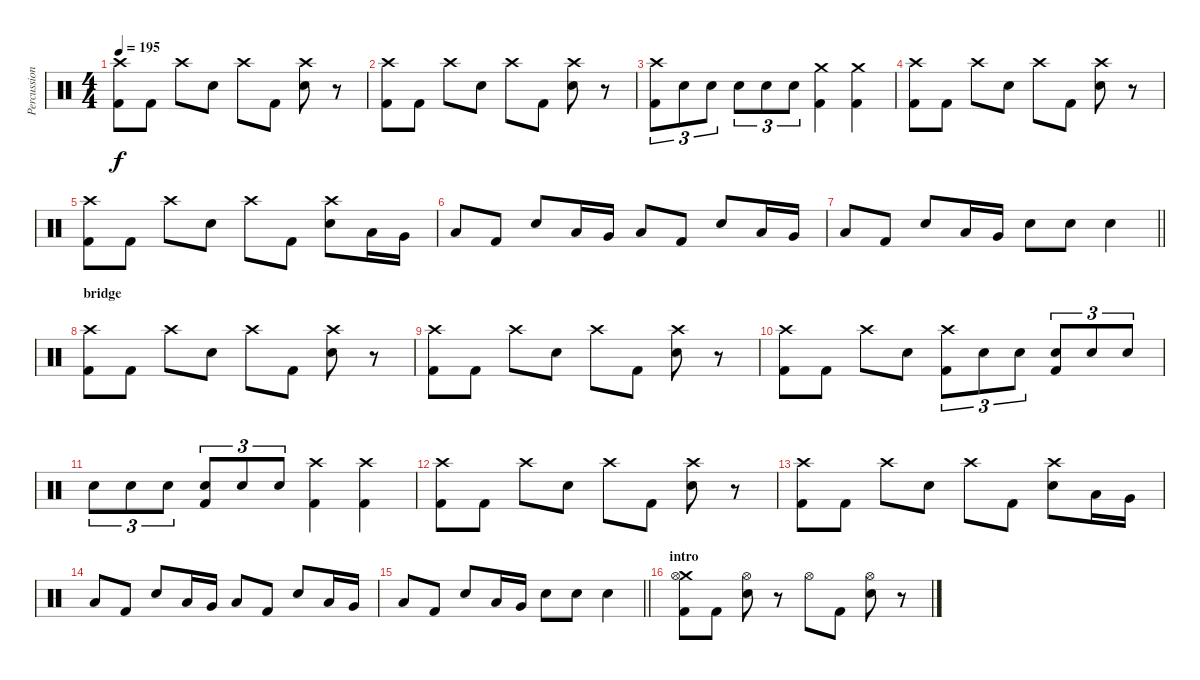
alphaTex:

\track ("Percussion" "Percussion") {instrument percussion}
\staff {score}
\articulation defaults
\ts (4 4)
\tempo 195
\clef neutral
\ks c
("Crash high (hit)" "Kick (hit) 2").8{dy f} "Kick (hit) 2".8 "Crash high (hit)".8 "Snare (hit) 2".8 "Crash high (hit)".8 "Kick (hit) 2".8 ("Crash high (hit)" "Snare (hit) 2").8 r.8 |
("Crash high (hit)" "Kick (hit) 2").8 "Kick (hit) 2".8 "Crash high (hit)".8 "Snare (hit) 2".8 "Crash high (hit)".8 "Kick (hit) 2".8 ("Crash high (hit)" "Snare (hit) 2").8 r.8 |
("Crash high (hit)" "Kick (hit) 2").8{tu (3 2)} "Snare (hit) 2".8{tu (3 2)} "Snare (hit) 2".8{tu (3 2)} "Snare (hit) 2".8{tu (3 2)} "Snare (hit) 2".8{tu (3 2)} "Snare (hit) 2".8{tu (3 2)} ("Crash medium (hit)" "Kick (hit) 2").4 ("Crash medium (hit)" "Kick (hit) 2").4 |
("Crash high (hit)" "Kick (hit) 2").8 "Kick (hit) 2".8 "Crash high (hit)".8 "Snare (hit) 2".8 "Crash high (hit)".8 "Kick (hit) 2".8 ("Crash high (hit)" "Snare (hit) 2").8 r.8 |
("Crash high (hit)" "Kick (hit) 2").8 "Kick (hit) 2".8 "Crash high (hit)".8 "Snare (hit) 2".8 "Crash high (hit)".8 "Kick (hit) 2".8 ("Crash high (hit)" "Snare (hit) 2").8 "Low Tom (hit)".16 "Very Low Tom (hit)".16 |
"Low Floor Tom (hit)".8 "Kick (hit) 2".8 "Snare (hit) 2".8 "Low Tom (hit)".16 "Very Low Tom (hit)".16 "Low Floor Tom (hit)".8 "Kick (hit) 2".8 "Snare (hit) 2".8 "Low Tom (hit)".16 "Very Low Tom (hit)".16 |
\barLineRight lightlight "Low Floor Tom (hit)".8 "Kick (hit) 2".8 "Snare (hit) 2".8 "Low Tom (hit)".16 "Very Low Tom (hit)".16 "Snare (hit) 2".8 "Snare (hit) 2".8 "Snare (hit) 2".4
|
\section ("" "bridge")
("Crash high (hit)" "Kick (hit) 2").8 "Kick (hit) 2".8 "Crash high (hit)".8 "Snare (hit) 2".8 "Crash high (hit)".8 "Kick (hit) 2".8 ("Crash high (hit)" "Snare (hit) 2").8 r.8 |
("Crash high (hit)" "Kick (hit) 2").8 "Kick (hit) 2".8 "Crash high (hit)".8 "Snare (hit) 2".8 "Crash high (hit)".8 "Kick (hit) 2".8 ("Crash high (hit)" "Snare (hit) 2").8 r.8 |
("Crash high (hit)" "Kick (hit) 2").8 "Kick (hit) 2".8 "Crash high (hit)".8 "Snare (hit) 2".8 ("Crash high (hit)" "Kick (hit) 2").8{tu (3 2)} "Snare (hit) 2".8{tu (3 2)} "Snare (hit) 2".8{tu (3 2)} ("Snare (hit) 2" "Kick (hit) 2").8{tu (3 2)} "Snare (hit) 2".8{tu (3 2)} "Snare (hit) 2".8{tu (3 2)} |
"Snare (hit) 2".8{tu (3 2)} "Snare (hit) 2".8{tu (3 2)} "Snare (hit) 2".8{tu (3 2)} ("Snare (hit) 2" "Kick (hit) 2").8{tu (3 2)} "Snare (hit) 2".8{tu (3 2)} "Snare (hit) 2".8{tu (3 2)} ("Crash high (hit)" "Kick (hit) 2").4 ("Crash high (hit)" "Kick (hit) 2").4 |
("Crash high (hit)" "Kick (hit) 2").8 "Kick (hit) 2".8 "Crash high (hit)".8 "Snare (hit) 2".8 "Crash high (hit)".8 "Kick (hit) 2".8 ("Crash high (hit)" "Snare (hit) 2").8 r.8 |
("Crash high (hit)" "Kick (hit) 2").8 "Kick (hit) 2".8 "Crash high (hit)".8 "Snare (hit) 2".8 "Crash high (hit)".8 "Kick (hit) 2".8 ("Crash high (hit)" "Snare (hit) 2").8 "Low Tom (hit)".16 "Very Low Tom (hit)".16 |
"Low Floor Tom (hit)".8 "Kick (hit) 2".8 "Snare (hit) 2".8 "Low Tom (hit)".16 "Very Low Tom (hit)".16 "Low Floor Tom (hit)".8 "Kick (hit) 2".8 "Snare (hit) 2".8 "Low Tom (hit)".16 "Very Low Tom (hit)".16 |
\barLineRight lightlight "Low Floor Tom (hit)".8 "Kick (hit) 2".8 "Snare (hit) 2".8 "Low Tom (hit)".16 "Very Low Tom (hit)".16 "Snare (hit) 2".8 "Snare (hit) 2".8 "Snare (hit) 2".4
|
\section ("" "intro")
("Crash medium (hit)" "Hi-Hat (open)" "Kick (hit) 2").8 "Kick (hit) 2".8 ("Hi-Hat (open)" "Snare (hit) 2").8 r.8 "Hi-Hat (open)".8 "Kick (hit) 2".8 ("Hi-Hat (open)" "Snare (hit) 2").8 r.8
